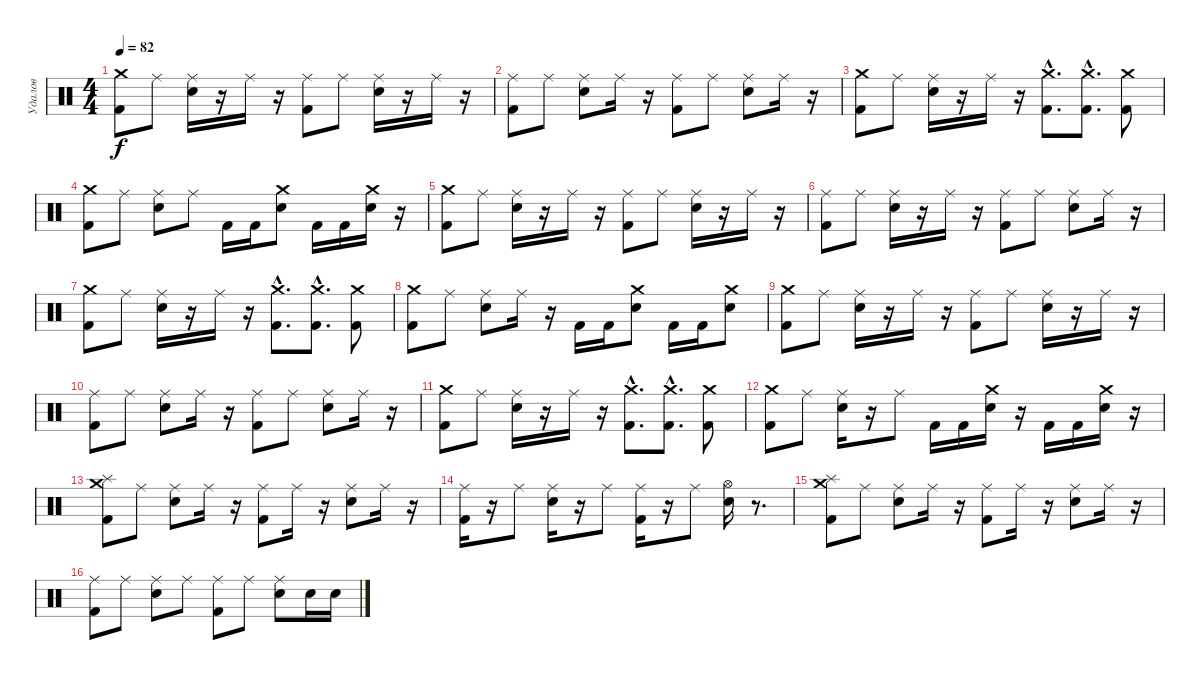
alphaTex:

\track ("Удалов" "Удалов") {instrument percussion}
\staff {score}
\articulation defaults
\ts (4 4)
\tempo 82
\clef neutral
\ks c
("Crash medium (hit)" "Kick (hit) 2").8{dy f} "Ride (middle)".8 ("Ride (middle)" "Snare (hit) 2").16 r.16 "Ride (middle)".16 r.16 ("Ride (middle)" "Kick (hit) 2").8 "Ride (middle)".8 ("Ride (middle)" "Snare (hit) 2").16 r.16 "Ride (middle)".16 r.16 |
("Ride (middle)" "Kick (hit) 2").8 "Ride (middle)".8 ("Ride (middle)" "Snare (hit) 2").8 "Ride (middle)".16 r.16 ("Ride (middle)" "Kick (hit) 2").8 "Ride (middle)".8 ("Ride (middle)" "Snare (hit) 2").8 "Ride (middle)".16 r.16 |
("Crash medium (hit)" "Kick (hit) 2").8 "Ride (middle)".8 ("Ride (middle)" "Snare (hit) 2").16 r.16 "Ride (middle)".16 r.16 ("Crash medium (hit)"{hac} "Kick (hit) 2").8{d} ("Crash medium (hit)"{hac} "Kick (hit) 2").8{d} ("Crash medium (hit)" "Kick (hit) 2").8 |
("Crash medium (hit)" "Kick (hit) 2").8 "Ride (middle)".8 ("Ride (middle)" "Snare (hit) 2").8 "Ride (middle)".8 "Kick (hit) 2".16 "Kick (hit) 2".16 ("Crash medium (hit)" "Snare (hit) 2").8 "Kick (hit) 2".16 "Kick (hit) 2".16 ("Crash medium (hit)" "Snare (hit) 2").16 r.16 |
("Crash medium (hit)" "Kick (hit) 2").8 "Ride (middle)".8 ("Ride (middle)" "Snare (hit) 2").16 r.16 "Ride (middle)".16 r.16 ("Ride (middle)" "Kick (hit) 2").8 "Ride (middle)".8 ("Ride (middle)" "Snare (hit) 2").16 r.16 "Ride (middle)".16 r.16 |
("Ride (middle)" "Kick (hit) 2").8 "Ride (middle)".8 ("Ride (middle)" "Snare (hit) 2").16 r.16 "Ride (middle)".16 r.16 ("Ride (middle)" "Kick (hit) 2").8 "Ride (middle)".8 ("Ride (middle)" "Snare (hit) 2").8 "Ride (middle)".16 r.16 |
("Crash medium (hit)" "Kick (hit) 2").8 "Ride (middle)".8 ("Ride (middle)" "Snare (hit) 2").16 r.16 "Ride (middle)".16 r.16 ("Crash medium (hit)"{hac} "Kick (hit) 2").8{d} ("Crash medium (hit)"{hac} "Kick (hit) 2").8{d} ("Crash medium (hit)" "Kick (hit) 2").8 |
("Crash medium (hit)" "Kick (hit) 2").8 "Ride (middle)".8 ("Ride (middle)" "Snare (hit) 2").8 "Ride (middle)".16 r.16 "Kick (hit) 2".16 "Kick (hit) 2".16 ("Crash medium (hit)" "Snare (hit) 2").8 "Kick (hit) 2".16 "Kick (hit) 2".16 ("Crash medium (hit)" "Snare (hit) 2").8 |
("Crash medium (hit)" "Kick (hit) 2").8 "Ride (middle)".8 ("Ride (middle)" "Snare (hit) 2").16 r.16 "Ride (middle)".16 r.16 ("Ride (middle)" "Kick (hit) 2").8 "Ride (middle)".8 ("Ride (middle)" "Snare (hit) 2").16 r.16 "Ride (middle)".16 r.16 |
("Ride (middle)" "Kick (hit) 2").8 "Ride (middle)".8 ("Ride (middle)" "Snare (hit) 2").8 "Ride (middle)".16 r.16 ("Ride (middle)" "Kick (hit) 2").8 "Ride (middle)".8 ("Ride (middle)" "Snare (hit) 2").8 "Ride (middle)".16 r.16 |
("Crash medium (hit)" "Kick (hit) 2").8 "Ride (middle)".8 ("Ride (middle)" "Snare (hit) 2").16 r.16 "Ride (middle)".16 r.16 ("Crash medium (hit)"{hac} "Kick (hit) 2").8{d} ("Crash medium (hit)"{hac} "Kick (hit) 2").8{d} ("Crash medium (hit)" "Kick (hit) 2").8 |
("Crash medium (hit)" "Kick (hit) 2").8 "Ride (middle)".8 ("Ride (middle)" "Snare (hit) 2").16 r.16 "Ride (middle)".8 "Kick (hit) 2".16 "Kick (hit) 2".16 ("Crash medium (hit)" "Snare (hit) 2").16 r.16 "Kick (hit) 2".16 "Kick (hit) 2".16 ("Crash medium (hit)" "Snare (hit) 2").16 r.16 |
("Crash medium (hit)" "Splash (hit)" "Kick (hit) 2").8 "Ride (middle)".8 ("Ride (middle)" "Snare (hit) 2").8 "Ride (middle)".16 r.16 ("Ride (middle)" "Kick (hit) 2").8 "Ride (middle)".16 r.16 ("Ride (middle)" "Snare (hit) 2").8 "Ride (middle)".16 r.16 |
("Ride (middle)" "Kick (hit) 2").16 r.16 "Ride (middle)".8 ("Ride (middle)" "Snare (hit) 2").16 r.16 "Ride (middle)".8 ("Ride (middle)" "Kick (hit) 2").16 r.16 "Ride (middle)".8 ("Hi-Hat (open)" "Snare (hit) 2").16 r.8{d} |
("Crash medium (hit)" "Splash (hit)" "Kick (hit) 2").8 "Ride (middle)".8 ("Ride (middle)" "Snare (hit) 2").8 "Ride (middle)".16 r.16 ("Ride (middle)" "Kick (hit) 2").8 "Ride (middle)".16 r.16 ("Ride (middle)" "Snare (hit) 2").8 "Ride (middle)".16 r.16 |
("Ride (middle)" "Kick (hit) 2").8 "Ride (middle)".8 ("Ride (middle)" "Snare (hit) 2").8 "Ride (middle)".8 ("Ride (middle)" "Kick (hit) 2").8 "Ride (middle)".8 ("Ride (middle)" "Snare (hit) 2").8 "Snare (hit) 2".16 "Snare (hit) 2".16
